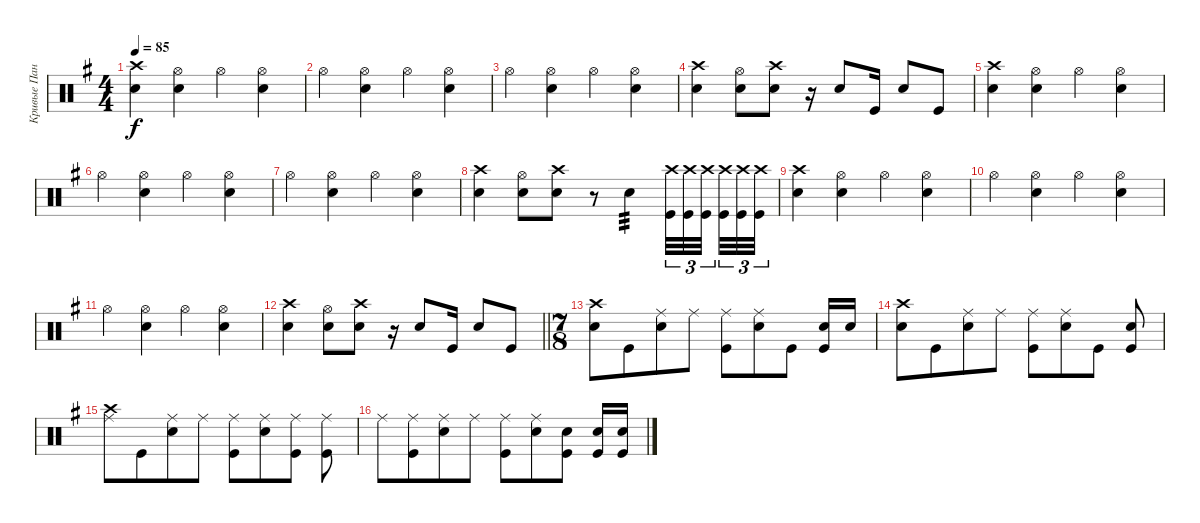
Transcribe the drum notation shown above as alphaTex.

\track ("Кривые Панковские Ударки (CPU)" "Кривые Пан") {instrument percussion}
\staff {score}
\articulation defaults
\ts (4 4)
\tempo 85
\clef neutral
\ks eminor
("Snare (hit) 2" "Crash high (hit)").4{dy f} ("Hi-Hat (open)" "Snare (hit) 2").4 "Hi-Hat (open)".4 ("Hi-Hat (open)" "Snare (hit) 2").4 |
"Hi-Hat (open)".4 ("Hi-Hat (open)" "Snare (hit) 2").4 "Hi-Hat (open)".4 ("Hi-Hat (open)" "Snare (hit) 2").4 |
"Hi-Hat (open)".4 ("Hi-Hat (open)" "Snare (hit) 2").4 "Hi-Hat (open)".4 ("Hi-Hat (open)" "Snare (hit) 2").4 |
("Snare (hit) 2" "Crash high (hit)").4 ("Hi-Hat (open)" "Snare (hit) 2").8 ("Snare (hit) 2" "Crash high (hit)").8 r.16 "Snare (hit) 2".8 "Kick (hit)".16 "Snare (hit) 2".8 "Kick (hit)".8 |
("Snare (hit) 2" "Crash high (hit)").4 ("Hi-Hat (open)" "Snare (hit) 2").4 "Hi-Hat (open)".4 ("Hi-Hat (open)" "Snare (hit) 2").4 |
"Hi-Hat (open)".4 ("Hi-Hat (open)" "Snare (hit) 2").4 "Hi-Hat (open)".4 ("Hi-Hat (open)" "Snare (hit) 2").4 |
"Hi-Hat (open)".4 ("Hi-Hat (open)" "Snare (hit) 2").4 "Hi-Hat (open)".4 ("Hi-Hat (open)" "Snare (hit) 2").4 |
("Snare (hit) 2" "Crash high (hit)").4 ("Hi-Hat (open)" "Snare (hit) 2").8 ("Snare (hit) 2" "Crash high (hit)").8 r.8 "Snare (hit) 2".4{tp 3} ("Crash high (hit)" "Kick (hit)").32{tu (3 2)} ("Crash high (hit)" "Kick (hit)").32{tu (3 2)} ("Crash high (hit)" "Kick (hit)").32{tu (3 2)} ("Crash high (hit)" "Kick (hit)").32{tu (3 2)} ("Crash high (hit)" "Kick (hit)").32{tu (3 2)} ("Crash high (hit)" "Kick (hit)").32{tu (3 2)} |
("Snare (hit) 2" "Crash high (hit)").4 ("Hi-Hat (open)" "Snare (hit) 2").4 "Hi-Hat (open)".4 ("Hi-Hat (open)" "Snare (hit) 2").4 |
"Hi-Hat (open)".4 ("Hi-Hat (open)" "Snare (hit) 2").4 "Hi-Hat (open)".4 ("Hi-Hat (open)" "Snare (hit) 2").4 |
"Hi-Hat (open)".4 ("Hi-Hat (open)" "Snare (hit) 2").4 "Hi-Hat (open)".4 ("Hi-Hat (open)" "Snare (hit) 2").4 |
\barLineRight lightlight
("Snare (hit) 2" "Crash high (hit)").4 ("Hi-Hat (open)" "Snare (hit) 2").8 ("Snare (hit) 2" "Crash high (hit)").8 r.16 "Snare (hit) 2".8 "Kick (hit)".16 "Snare (hit) 2".8 "Kick (hit)".8 |
\ts (7 8)
\section ("" "")
("Crash high (hit)" "Snare (hit) 2").8 "Kick (hit)".8 ("Ride (middle)" "Snare (hit) 2").8 "Ride (middle)".8 ("Ride (middle)" "Kick (hit)").8 ("Ride (middle)" "Snare (hit) 2").8 "Kick (hit)".8 ("Snare (hit) 2" "Kick (hit)").16 "Snare (hit) 2".16 |
("Crash high (hit)" "Snare (hit) 2").8 "Kick (hit)".8 ("Ride (middle)" "Snare (hit) 2").8 "Ride (middle)".8 ("Ride (middle)" "Kick (hit)").8 ("Ride (middle)" "Snare (hit) 2").8 "Kick (hit)".8 ("Snare (hit) 2" "Kick (hit)").8 |
("Ride (middle)" "Crash high (hit)").8 "Kick (hit)".8 ("Ride (middle)" "Snare (hit) 2").8 "Ride (middle)".8 ("Ride (middle)" "Kick (hit)").8 ("Ride (middle)" "Snare (hit) 2").8 ("Ride (middle)" "Kick (hit)").8 ("Ride (middle)" "Kick (hit)").8 |
"Ride (middle)".8 ("Ride (middle)" "Kick (hit)").8 ("Ride (middle)" "Snare (hit) 2").8 "Ride (middle)".8 ("Ride (middle)" "Kick (hit)").8 ("Ride (middle)" "Snare (hit) 2").8 ("Snare (hit) 2" "Kick (hit)").8 ("Snare (hit) 2" "Kick (hit)").16 ("Snare (hit) 2" "Kick (hit)").16
